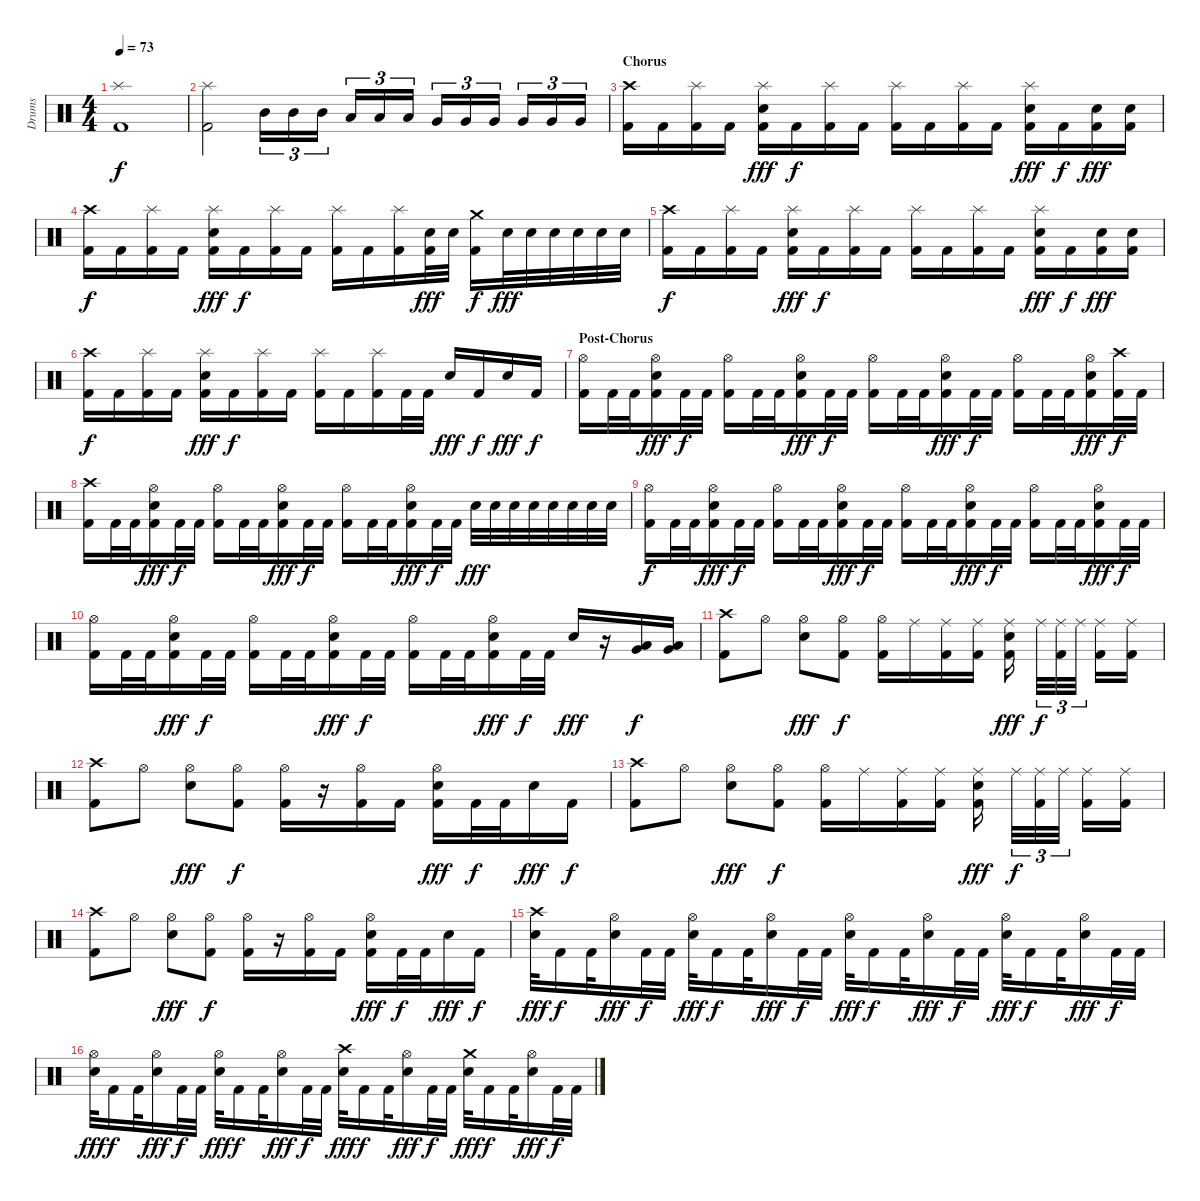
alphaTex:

\track ("Drums" "Drums") {instrument percussion}
\staff {score}
\articulation defaults
\ts (4 4)
\tempo 73
\clef neutral
\ks c
("Splash (hit)" "Kick (hit) 2").1{dy f} |
("Splash (hit)" "Kick (hit) 2").2 "Mid Tom (hit)".16{tu (3 2)} "Mid Tom (hit)".16{tu (3 2)} "Mid Tom (hit)".16{tu (3 2)} "Low Tom (hit)".16{tu (3 2)} "Low Tom (hit)".16{tu (3 2)} "Low Tom (hit)".16{tu (3 2)} "Very Low Tom (hit)".16{tu (3 2)} "Very Low Tom (hit)".16{tu (3 2)} "Very Low Tom (hit)".16{tu (3 2)} "Very Low Tom (hit)".16{tu (3 2)} "Very Low Tom (hit)".16{tu (3 2)} "Very Low Tom (hit)".16{tu (3 2)} |
\section ("" "Chorus")
("Crash high (hit)" "Kick (hit) 2").16 "Kick (hit) 2".16 ("Splash (hit)" "Kick (hit) 2").16 "Kick (hit) 2".16 ("Splash (hit)" "Snare (hit) 2" "Kick (hit) 2").16{dy fff} "Kick (hit) 2".16{dy f} ("Splash (hit)" "Kick (hit) 2").16 "Kick (hit) 2".16 ("Splash (hit)" "Kick (hit) 2").16 "Kick (hit) 2".16 ("Splash (hit)" "Kick (hit) 2").16 "Kick (hit) 2".16 ("Splash (hit)" "Snare (hit) 2" "Kick (hit) 2").16{dy fff} "Kick (hit) 2".16{dy f} ("Snare (hit) 2" "Kick (hit) 2").16{dy fff} ("Snare (hit) 2" "Kick (hit) 2").16 |
("Crash high (hit)" "Kick (hit) 2").16{dy f} "Kick (hit) 2".16 ("Splash (hit)" "Kick (hit) 2").16 "Kick (hit) 2".16 ("Splash (hit)" "Snare (hit) 2" "Kick (hit) 2").16{dy fff} "Kick (hit) 2".16{dy f} ("Splash (hit)" "Kick (hit) 2").16 "Kick (hit) 2".16 ("Splash (hit)" "Kick (hit) 2").16 "Kick (hit) 2".16 ("Splash (hit)" "Kick (hit) 2").16 ("Snare (hit) 2" "Kick (hit) 2").32{dy fff} "Snare (hit) 2".32 ("Crash medium (hit)" "Kick (hit) 2").16{dy f} "Snare (hit) 2".32{dy fff} "Snare (hit) 2".32 "Snare (hit) 2".32 "Snare (hit) 2".32 "Snare (hit) 2".32 "Snare (hit) 2".32 |
("Crash high (hit)" "Kick (hit) 2").16{dy f} "Kick (hit) 2".16 ("Splash (hit)" "Kick (hit) 2").16 "Kick (hit) 2".16 ("Splash (hit)" "Snare (hit) 2" "Kick (hit) 2").16{dy fff} "Kick (hit) 2".16{dy f} ("Splash (hit)" "Kick (hit) 2").16 "Kick (hit) 2".16 ("Splash (hit)" "Kick (hit) 2").16 "Kick (hit) 2".16 ("Splash (hit)" "Kick (hit) 2").16 "Kick (hit) 2".16 ("Splash (hit)" "Snare (hit) 2" "Kick (hit) 2").16{dy fff} "Kick (hit) 2".16{dy f} ("Snare (hit) 2" "Kick (hit) 2").16{dy fff} ("Snare (hit) 2" "Kick (hit) 2").16 |
("Crash high (hit)" "Kick (hit) 2").16{dy f} "Kick (hit) 2".16 ("Splash (hit)" "Kick (hit) 2").16 "Kick (hit) 2".16 ("Splash (hit)" "Snare (hit) 2" "Kick (hit) 2").16{dy fff} "Kick (hit) 2".16{dy f} ("Splash (hit)" "Kick (hit) 2").16 "Kick (hit) 2".16 ("Splash (hit)" "Kick (hit) 2").16 "Kick (hit) 2".16 ("Splash (hit)" "Kick (hit) 2").16 "Kick (hit) 2".32 "Kick (hit) 2".32 "Snare (hit) 2".16{dy fff} "Kick (hit) 2".16{dy f} "Snare (hit) 2".16{dy fff} "Kick (hit) 2".16{dy f} |
\section ("" "Post-Chorus")
("Hi-Hat (open)" "Kick (hit) 2").16 "Kick (hit) 2".32 "Kick (hit) 2".32 ("Hi-Hat (open)" "Snare (hit) 2" "Kick (hit) 2").16{dy fff} "Kick (hit) 2".32{dy f} "Kick (hit) 2".32 ("Hi-Hat (open)" "Kick (hit) 2").16 "Kick (hit) 2".32 "Kick (hit) 2".32 ("Hi-Hat (open)" "Snare (hit) 2" "Kick (hit) 2").16{dy fff} "Kick (hit) 2".32{dy f} "Kick (hit) 2".32 ("Hi-Hat (open)" "Kick (hit) 2").16 "Kick (hit) 2".32 "Kick (hit) 2".32 ("Hi-Hat (open)" "Snare (hit) 2" "Kick (hit) 2").16{dy fff} "Kick (hit) 2".32{dy f} "Kick (hit) 2".32 ("Hi-Hat (open)" "Kick (hit) 2").16 "Kick (hit) 2".32 "Kick (hit) 2".32 ("Hi-Hat (open)" "Snare (hit) 2" "Kick (hit) 2").16{dy fff} ("Crash high (hit)" "Kick (hit) 2").32{dy f} "Kick (hit) 2".32 |
("Crash high (hit)" "Kick (hit) 2").16 "Kick (hit) 2".32 "Kick (hit) 2".32 ("Hi-Hat (open)" "Snare (hit) 2" "Kick (hit) 2").16{dy fff} "Kick (hit) 2".32{dy f} "Kick (hit) 2".32 ("Hi-Hat (open)" "Kick (hit) 2").16 "Kick (hit) 2".32 "Kick (hit) 2".32 ("Hi-Hat (open)" "Snare (hit) 2" "Kick (hit) 2").16{dy fff} "Kick (hit) 2".32{dy f} "Kick (hit) 2".32 ("Hi-Hat (open)" "Kick (hit) 2").16 "Kick (hit) 2".32 "Kick (hit) 2".32 ("Hi-Hat (open)" "Snare (hit) 2" "Kick (hit) 2").16{dy fff} "Kick (hit) 2".32{dy f} "Kick (hit) 2".32 "Snare (hit) 2".32{dy fff} "Snare (hit) 2".32 "Snare (hit) 2".32 "Snare (hit) 2".32 "Snare (hit) 2".32 "Snare (hit) 2".32 "Snare (hit) 2".32 "Snare (hit) 2".32 |
("Hi-Hat (open)" "Kick (hit) 2").16{dy f} "Kick (hit) 2".32 "Kick (hit) 2".32 ("Hi-Hat (open)" "Snare (hit) 2" "Kick (hit) 2").16{dy fff} "Kick (hit) 2".32{dy f} "Kick (hit) 2".32 ("Hi-Hat (open)" "Kick (hit) 2").16 "Kick (hit) 2".32 "Kick (hit) 2".32 ("Hi-Hat (open)" "Snare (hit) 2" "Kick (hit) 2").16{dy fff} "Kick (hit) 2".32{dy f} "Kick (hit) 2".32 ("Hi-Hat (open)" "Kick (hit) 2").16 "Kick (hit) 2".32 "Kick (hit) 2".32 ("Hi-Hat (open)" "Snare (hit) 2" "Kick (hit) 2").16{dy fff} "Kick (hit) 2".32{dy f} "Kick (hit) 2".32 ("Hi-Hat (open)" "Kick (hit) 2").16 "Kick (hit) 2".32 "Kick (hit) 2".32 ("Hi-Hat (open)" "Snare (hit) 2" "Kick (hit) 2").16{dy fff} "Kick (hit) 2".32{dy f} "Kick (hit) 2".32 |
("Hi-Hat (open)" "Kick (hit) 2").16 "Kick (hit) 2".32 "Kick (hit) 2".32 ("Hi-Hat (open)" "Snare (hit) 2" "Kick (hit) 2").16{dy fff} "Kick (hit) 2".32{dy f} "Kick (hit) 2".32 ("Hi-Hat (open)" "Kick (hit) 2").16 "Kick (hit) 2".32 "Kick (hit) 2".32 ("Hi-Hat (open)" "Snare (hit) 2" "Kick (hit) 2").16{dy fff} "Kick (hit) 2".32{dy f} "Kick (hit) 2".32 ("Hi-Hat (open)" "Kick (hit) 2").16 "Kick (hit) 2".32 "Kick (hit) 2".32 ("Hi-Hat (open)" "Snare (hit) 2" "Kick (hit) 2").16{dy fff} "Kick (hit) 2".32{dy f} "Kick (hit) 2".32 "Snare (hit) 2".16{dy fff} r.16 ("Very Low Tom (hit)" "Low Tom (hit)").16{dy f} ("Very Low Tom (hit)" "Low Tom (hit)").16 |
("Crash high (hit)" "Kick (hit) 2").8 "Hi-Hat (open)".8 ("Hi-Hat (open)" "Snare (hit) 2").8{dy fff} ("Hi-Hat (open)" "Kick (hit) 2").8{dy f} ("Hi-Hat (open)" "Kick (hit) 2").16 "Ride (middle)".16 ("Ride (middle)" "Kick (hit) 2").16 ("Ride (middle)" "Kick (hit) 2").16 ("Ride (middle)" "Snare (hit) 2" "Kick (hit) 2").16{dy fff} "Ride (middle)".32{tu (3 2) dy f} ("Ride (middle)" "Kick (hit) 2").32{tu (3 2)} "Ride (middle)".32{tu (3 2)} ("Ride (middle)" "Kick (hit) 2").16 ("Ride (middle)" "Kick (hit) 2").16 |
("Crash high (hit)" "Kick (hit) 2").8 "Hi-Hat (open)".8 ("Hi-Hat (open)" "Snare (hit) 2").8{dy fff} ("Hi-Hat (open)" "Kick (hit) 2").8{dy f} ("Hi-Hat (open)" "Kick (hit) 2").16 r.16 ("Hi-Hat (open)" "Kick (hit) 2").16 "Kick (hit) 2".16 ("Hi-Hat (open)" "Snare (hit) 2" "Kick (hit) 2").16{dy fff} "Kick (hit) 2".32{dy f} "Kick (hit) 2".32 "Snare (hit) 2".16{dy fff} "Kick (hit) 2".16{dy f} |
("Crash high (hit)" "Kick (hit) 2").8 "Hi-Hat (open)".8 ("Hi-Hat (open)" "Snare (hit) 2").8{dy fff} ("Hi-Hat (open)" "Kick (hit) 2").8{dy f} ("Hi-Hat (open)" "Kick (hit) 2").16 "Ride (middle)".16 ("Ride (middle)" "Kick (hit) 2").16 ("Ride (middle)" "Kick (hit) 2").16 ("Ride (middle)" "Snare (hit) 2" "Kick (hit) 2").16{dy fff} "Ride (middle)".32{tu (3 2) dy f} ("Ride (middle)" "Kick (hit) 2").32{tu (3 2)} "Ride (middle)".32{tu (3 2)} ("Ride (middle)" "Kick (hit) 2").16 ("Ride (middle)" "Kick (hit) 2").16 |
("Crash high (hit)" "Kick (hit) 2").8 "Hi-Hat (open)".8 ("Hi-Hat (open)" "Snare (hit) 2").8{dy fff} ("Hi-Hat (open)" "Kick (hit) 2").8{dy f} ("Hi-Hat (open)" "Kick (hit) 2").16 r.16 ("Hi-Hat (open)" "Kick (hit) 2").16 "Kick (hit) 2".16 ("Hi-Hat (open)" "Snare (hit) 2" "Kick (hit) 2").16{dy fff} "Kick (hit) 2".32{dy f} "Kick (hit) 2".32 "Snare (hit) 2".16{dy fff} "Kick (hit) 2".16{dy f} |
("Crash high (hit)" "Snare (hit) 2").32{dy fff} "Kick (hit) 2".16{dy f} "Kick (hit) 2".32 ("Hi-Hat (open)" "Snare (hit) 2").16{dy fff} "Kick (hit) 2".32{dy f} "Kick (hit) 2".32 ("Hi-Hat (open)" "Snare (hit) 2").32{dy fff} "Kick (hit) 2".16{dy f} "Kick (hit) 2".32 ("Hi-Hat (open)" "Snare (hit) 2").16{dy fff} "Kick (hit) 2".32{dy f} "Kick (hit) 2".32 ("Hi-Hat (open)" "Snare (hit) 2").32{dy fff} "Kick (hit) 2".16{dy f} "Kick (hit) 2".32 ("Hi-Hat (open)" "Snare (hit) 2").16{dy fff} "Kick (hit) 2".32{dy f} "Kick (hit) 2".32 ("Hi-Hat (open)" "Snare (hit) 2").32{dy fff} "Kick (hit) 2".16{dy f} "Kick (hit) 2".32 ("Hi-Hat (open)" "Snare (hit) 2").16{dy fff} "Kick (hit) 2".32{dy f} "Kick (hit) 2".32 |
("Hi-Hat (open)" "Snare (hit) 2").32{dy fff} "Kick (hit) 2".16{dy f} "Kick (hit) 2".32 ("Hi-Hat (open)" "Snare (hit) 2").16{dy fff} "Kick (hit) 2".32{dy f} "Kick (hit) 2".32 ("Hi-Hat (open)" "Snare (hit) 2").32{dy fff} "Kick (hit) 2".16{dy f} "Kick (hit) 2".32 ("Hi-Hat (open)" "Snare (hit) 2").16{dy fff} "Kick (hit) 2".32{dy f} "Kick (hit) 2".32 ("Crash high (hit)" "Snare (hit) 2").32{dy fff} "Kick (hit) 2".16{dy f} "Kick (hit) 2".32 ("Hi-Hat (open)" "Snare (hit) 2").16{dy fff} "Kick (hit) 2".32{dy f} "Kick (hit) 2".32 ("Crash medium (hit)" "Snare (hit) 2").32{dy fff} "Kick (hit) 2".16{dy f} "Kick (hit) 2".32 ("Hi-Hat (open)" "Snare (hit) 2").16{dy fff} "Kick (hit) 2".32{dy f} "Kick (hit) 2".32
